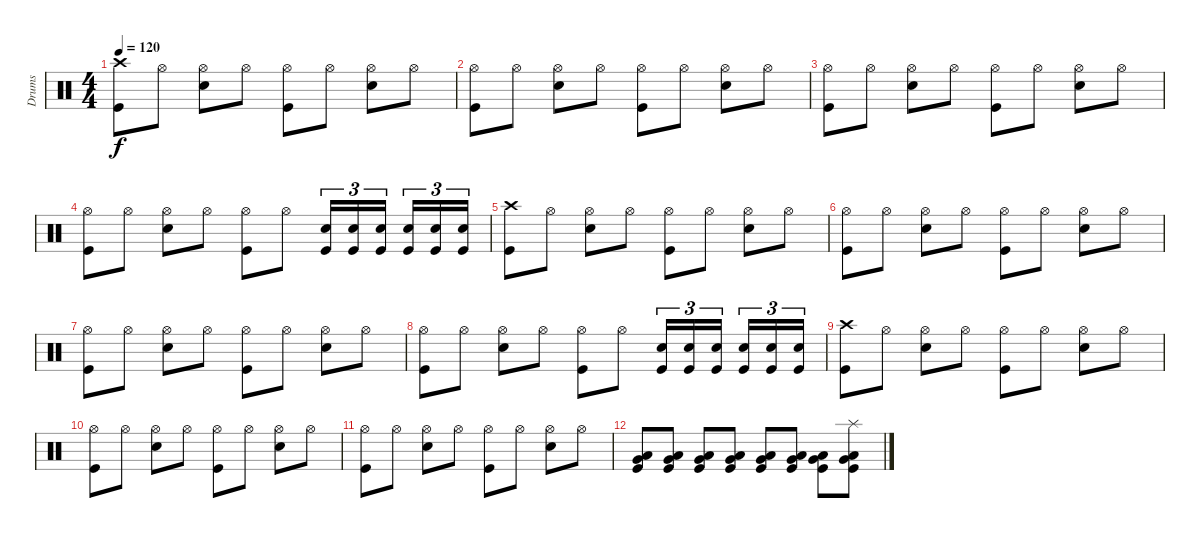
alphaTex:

\track ("Drums" "Drums") {instrument percussion}
\staff {score}
\articulation defaults
\ts (4 4)
\tempo 120
\clef neutral
\ks c
("Crash high (hit)" "Kick (hit)").8{dy f} "Hi-Hat (open)".8 ("Hi-Hat (open)" "Snare (hit) 2").8 "Hi-Hat (open)".8 ("Hi-Hat (open)" "Kick (hit)").8 "Hi-Hat (open)".8 ("Hi-Hat (open)" "Snare (hit) 2").8 "Hi-Hat (open)".8 |
("Hi-Hat (open)" "Kick (hit)").8 "Hi-Hat (open)".8 ("Hi-Hat (open)" "Snare (hit) 2").8 "Hi-Hat (open)".8 ("Hi-Hat (open)" "Kick (hit)").8 "Hi-Hat (open)".8 ("Hi-Hat (open)" "Snare (hit) 2").8 "Hi-Hat (open)".8 |
("Hi-Hat (open)" "Kick (hit)").8 "Hi-Hat (open)".8 ("Hi-Hat (open)" "Snare (hit) 2").8 "Hi-Hat (open)".8 ("Hi-Hat (open)" "Kick (hit)").8 "Hi-Hat (open)".8 ("Hi-Hat (open)" "Snare (hit) 2").8 "Hi-Hat (open)".8 |
("Hi-Hat (open)" "Kick (hit)").8 "Hi-Hat (open)".8 ("Hi-Hat (open)" "Snare (hit) 2").8 "Hi-Hat (open)".8 ("Hi-Hat (open)" "Kick (hit)").8 "Hi-Hat (open)".8 ("Snare (hit) 2" "Kick (hit)").16{tu (3 2)} ("Snare (hit) 2" "Kick (hit)").16{tu (3 2)} ("Snare (hit) 2" "Kick (hit)").16{tu (3 2)} ("Snare (hit) 2" "Kick (hit)").16{tu (3 2)} ("Snare (hit) 2" "Kick (hit)").16{tu (3 2)} ("Snare (hit) 2" "Kick (hit)").16{tu (3 2)} |
("Crash high (hit)" "Kick (hit)").8 "Hi-Hat (open)".8 ("Hi-Hat (open)" "Snare (hit) 2").8 "Hi-Hat (open)".8 ("Hi-Hat (open)" "Kick (hit)").8 "Hi-Hat (open)".8 ("Hi-Hat (open)" "Snare (hit) 2").8 "Hi-Hat (open)".8 |
("Hi-Hat (open)" "Kick (hit)").8 "Hi-Hat (open)".8 ("Hi-Hat (open)" "Snare (hit) 2").8 "Hi-Hat (open)".8 ("Hi-Hat (open)" "Kick (hit)").8 "Hi-Hat (open)".8 ("Hi-Hat (open)" "Snare (hit) 2").8 "Hi-Hat (open)".8 |
("Hi-Hat (open)" "Kick (hit)").8 "Hi-Hat (open)".8 ("Hi-Hat (open)" "Snare (hit) 2").8 "Hi-Hat (open)".8 ("Hi-Hat (open)" "Kick (hit)").8 "Hi-Hat (open)".8 ("Hi-Hat (open)" "Snare (hit) 2").8 "Hi-Hat (open)".8 |
("Hi-Hat (open)" "Kick (hit)").8 "Hi-Hat (open)".8 ("Hi-Hat (open)" "Snare (hit) 2").8 "Hi-Hat (open)".8 ("Hi-Hat (open)" "Kick (hit)").8 "Hi-Hat (open)".8 ("Snare (hit) 2" "Kick (hit)").16{tu (3 2)} ("Snare (hit) 2" "Kick (hit)").16{tu (3 2)} ("Snare (hit) 2" "Kick (hit)").16{tu (3 2)} ("Snare (hit) 2" "Kick (hit)").16{tu (3 2)} ("Snare (hit) 2" "Kick (hit)").16{tu (3 2)} ("Snare (hit) 2" "Kick (hit)").16{tu (3 2)} |
("Crash high (hit)" "Kick (hit)").8 "Hi-Hat (open)".8 ("Hi-Hat (open)" "Snare (hit) 2").8 "Hi-Hat (open)".8 ("Hi-Hat (open)" "Kick (hit)").8 "Hi-Hat (open)".8 ("Hi-Hat (open)" "Snare (hit) 2").8 "Hi-Hat (open)".8 |
("Hi-Hat (open)" "Kick (hit)").8 "Hi-Hat (open)".8 ("Hi-Hat (open)" "Snare (hit) 2").8 "Hi-Hat (open)".8 ("Hi-Hat (open)" "Kick (hit)").8 "Hi-Hat (open)".8 ("Hi-Hat (open)" "Snare (hit) 2").8 "Hi-Hat (open)".8 |
("Hi-Hat (open)" "Kick (hit)").8 "Hi-Hat (open)".8 ("Hi-Hat (open)" "Snare (hit) 2").8 "Hi-Hat (open)".8 ("Hi-Hat (open)" "Kick (hit)").8 "Hi-Hat (open)".8 ("Hi-Hat (open)" "Snare (hit) 2").8 "Hi-Hat (open)".8 |
("Low Floor Tom (hit)" "Very Low Tom (hit)" "Kick (hit)").8 ("Low Floor Tom (hit)" "Very Low Tom (hit)" "Kick (hit)").8 ("Low Floor Tom (hit)" "Very Low Tom (hit)" "Kick (hit)").8 ("Low Floor Tom (hit)" "Very Low Tom (hit)" "Kick (hit)").8 ("Low Floor Tom (hit)" "Very Low Tom (hit)" "Kick (hit)").8 ("Low Floor Tom (hit)" "Very Low Tom (hit)" "Kick (hit)").8 ("Low Floor Tom (hit)" "Very Low Tom (hit)" "Kick (hit)").8 ("Splash (hit)" "Low Floor Tom (hit)" "Very Low Tom (hit)" "Kick (hit)").8
